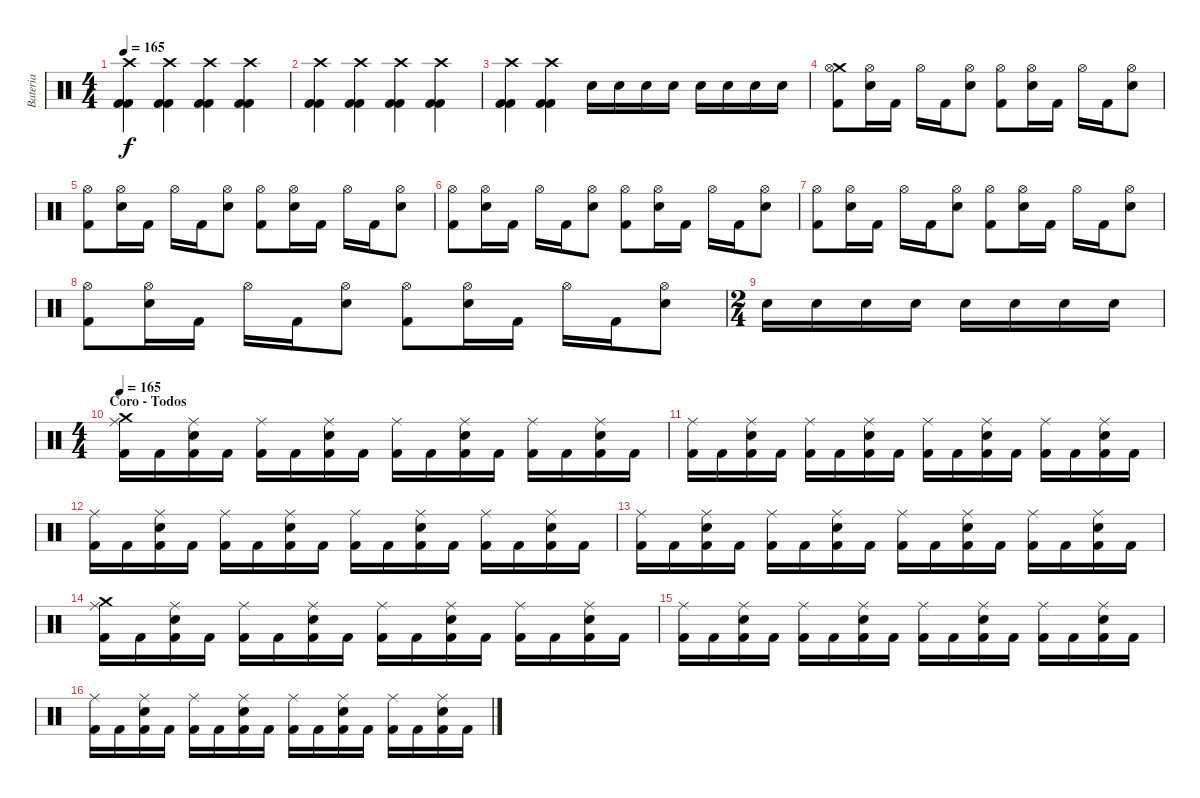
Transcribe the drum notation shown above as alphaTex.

\track ("Bateria" "Bateria") {instrument percussion}
\staff {score}
\articulation defaults
\ts (4 4)
\tempo 165
\clef neutral
\ks c
("Crash high (hit)" "Kick (hit) 2" "Kick (hit) 2").4{dy f} ("Crash high (hit)" "Kick (hit) 2" "Kick (hit) 2").4 ("Crash high (hit)" "Kick (hit) 2" "Kick (hit) 2").4 ("Crash high (hit)" "Kick (hit) 2" "Kick (hit) 2").4 |
("Crash high (hit)" "Kick (hit) 2" "Kick (hit) 2").4 ("Crash high (hit)" "Kick (hit) 2" "Kick (hit) 2").4 ("Crash high (hit)" "Kick (hit) 2" "Kick (hit) 2").4 ("Crash high (hit)" "Kick (hit) 2" "Kick (hit) 2").4 |
("Crash high (hit)" "Kick (hit) 2" "Kick (hit) 2").4 ("Crash high (hit)" "Kick (hit) 2" "Kick (hit) 2").4 "Snare (hit) 2".16 "Snare (hit) 2".16 "Snare (hit) 2".16 "Snare (hit) 2".16 "Snare (hit) 2".16 "Snare (hit) 2".16 "Snare (hit) 2".16 "Snare (hit) 2".16 |
("Crash medium (hit)" "Hi-Hat (open)" "Kick (hit) 2").8 ("Snare (hit) 2" "Hi-Hat (open)").16 "Kick (hit) 2".16 "Hi-Hat (open)".16 "Kick (hit) 2".16 ("Snare (hit) 2" "Hi-Hat (open)").8 ("Hi-Hat (open)" "Kick (hit) 2").8 ("Snare (hit) 2" "Hi-Hat (open)").16 "Kick (hit) 2".16 "Hi-Hat (open)".16 "Kick (hit) 2".16 ("Snare (hit) 2" "Hi-Hat (open)").8 |
("Hi-Hat (open)" "Kick (hit) 2").8 ("Snare (hit) 2" "Hi-Hat (open)").16 "Kick (hit) 2".16 "Hi-Hat (open)".16 "Kick (hit) 2".16 ("Snare (hit) 2" "Hi-Hat (open)").8 ("Hi-Hat (open)" "Kick (hit) 2").8 ("Snare (hit) 2" "Hi-Hat (open)").16 "Kick (hit) 2".16 "Hi-Hat (open)".16 "Kick (hit) 2".16 ("Snare (hit) 2" "Hi-Hat (open)").8 |
("Hi-Hat (open)" "Kick (hit) 2").8 ("Snare (hit) 2" "Hi-Hat (open)").16 "Kick (hit) 2".16 "Hi-Hat (open)".16 "Kick (hit) 2".16 ("Snare (hit) 2" "Hi-Hat (open)").8 ("Hi-Hat (open)" "Kick (hit) 2").8 ("Snare (hit) 2" "Hi-Hat (open)").16 "Kick (hit) 2".16 "Hi-Hat (open)".16 "Kick (hit) 2".16 ("Snare (hit) 2" "Hi-Hat (open)").8 |
("Hi-Hat (open)" "Kick (hit) 2").8 ("Snare (hit) 2" "Hi-Hat (open)").16 "Kick (hit) 2".16 "Hi-Hat (open)".16 "Kick (hit) 2".16 ("Snare (hit) 2" "Hi-Hat (open)").8 ("Hi-Hat (open)" "Kick (hit) 2").8 ("Snare (hit) 2" "Hi-Hat (open)").16 "Kick (hit) 2".16 "Hi-Hat (open)".16 "Kick (hit) 2".16 ("Snare (hit) 2" "Hi-Hat (open)").8 |
("Hi-Hat (open)" "Kick (hit) 2").8 ("Snare (hit) 2" "Hi-Hat (open)").16 "Kick (hit) 2".16 "Hi-Hat (open)".16 "Kick (hit) 2".16 ("Snare (hit) 2" "Hi-Hat (open)").8 ("Hi-Hat (open)" "Kick (hit) 2").8 ("Snare (hit) 2" "Hi-Hat (open)").16 "Kick (hit) 2".16 "Hi-Hat (open)".16 "Kick (hit) 2".16 ("Snare (hit) 2" "Hi-Hat (open)").8 |
\ts (2 4)
"Snare (hit) 2".16 "Snare (hit) 2".16 "Snare (hit) 2".16 "Snare (hit) 2".16 "Snare (hit) 2".16 "Snare (hit) 2".16 "Snare (hit) 2".16 "Snare (hit) 2".16 |
\ts (4 4)
\section ("" "Coro - Todos")
\tempo 165
("Crash medium (hit)" "Ride (middle)" "Kick (hit) 2").16 "Kick (hit) 2".16 ("Snare (hit) 2" "Ride (middle)" "Kick (hit) 2").16 "Kick (hit) 2".16 ("Ride (middle)" "Kick (hit) 2").16 "Kick (hit) 2".16 ("Snare (hit) 2" "Ride (middle)" "Kick (hit) 2").16 "Kick (hit) 2".16 ("Ride (middle)" "Kick (hit) 2").16 "Kick (hit) 2".16 ("Snare (hit) 2" "Ride (middle)" "Kick (hit) 2").16 "Kick (hit) 2".16 ("Ride (middle)" "Kick (hit) 2").16 "Kick (hit) 2".16 ("Snare (hit) 2" "Ride (middle)" "Kick (hit) 2").16 "Kick (hit) 2".16 |
("Ride (middle)" "Kick (hit) 2").16 "Kick (hit) 2".16 ("Snare (hit) 2" "Ride (middle)" "Kick (hit) 2").16 "Kick (hit) 2".16 ("Ride (middle)" "Kick (hit) 2").16 "Kick (hit) 2".16 ("Snare (hit) 2" "Ride (middle)" "Kick (hit) 2").16 "Kick (hit) 2".16 ("Ride (middle)" "Kick (hit) 2").16 "Kick (hit) 2".16 ("Snare (hit) 2" "Ride (middle)" "Kick (hit) 2").16 "Kick (hit) 2".16 ("Ride (middle)" "Kick (hit) 2").16 "Kick (hit) 2".16 ("Snare (hit) 2" "Ride (middle)" "Kick (hit) 2").16 "Kick (hit) 2".16 |
("Ride (middle)" "Kick (hit) 2").16 "Kick (hit) 2".16 ("Snare (hit) 2" "Ride (middle)" "Kick (hit) 2").16 "Kick (hit) 2".16 ("Ride (middle)" "Kick (hit) 2").16 "Kick (hit) 2".16 ("Snare (hit) 2" "Ride (middle)" "Kick (hit) 2").16 "Kick (hit) 2".16 ("Ride (middle)" "Kick (hit) 2").16 "Kick (hit) 2".16 ("Snare (hit) 2" "Ride (middle)" "Kick (hit) 2").16 "Kick (hit) 2".16 ("Ride (middle)" "Kick (hit) 2").16 "Kick (hit) 2".16 ("Snare (hit) 2" "Ride (middle)" "Kick (hit) 2").16 "Kick (hit) 2".16 |
("Ride (middle)" "Kick (hit) 2").16 "Kick (hit) 2".16 ("Snare (hit) 2" "Ride (middle)" "Kick (hit) 2").16 "Kick (hit) 2".16 ("Ride (middle)" "Kick (hit) 2").16 "Kick (hit) 2".16 ("Snare (hit) 2" "Ride (middle)" "Kick (hit) 2").16 "Kick (hit) 2".16 ("Ride (middle)" "Kick (hit) 2").16 "Kick (hit) 2".16 ("Snare (hit) 2" "Ride (middle)" "Kick (hit) 2").16 "Kick (hit) 2".16 ("Ride (middle)" "Kick (hit) 2").16 "Kick (hit) 2".16 ("Snare (hit) 2" "Ride (middle)" "Kick (hit) 2").16 "Kick (hit) 2".16 |
("Crash medium (hit)" "Ride (middle)" "Kick (hit) 2").16 "Kick (hit) 2".16 ("Snare (hit) 2" "Ride (middle)" "Kick (hit) 2").16 "Kick (hit) 2".16 ("Ride (middle)" "Kick (hit) 2").16 "Kick (hit) 2".16 ("Snare (hit) 2" "Ride (middle)" "Kick (hit) 2").16 "Kick (hit) 2".16 ("Ride (middle)" "Kick (hit) 2").16 "Kick (hit) 2".16 ("Snare (hit) 2" "Ride (middle)" "Kick (hit) 2").16 "Kick (hit) 2".16 ("Ride (middle)" "Kick (hit) 2").16 "Kick (hit) 2".16 ("Snare (hit) 2" "Ride (middle)" "Kick (hit) 2").16 "Kick (hit) 2".16 |
("Ride (middle)" "Kick (hit) 2").16 "Kick (hit) 2".16 ("Snare (hit) 2" "Ride (middle)" "Kick (hit) 2").16 "Kick (hit) 2".16 ("Ride (middle)" "Kick (hit) 2").16 "Kick (hit) 2".16 ("Snare (hit) 2" "Ride (middle)" "Kick (hit) 2").16 "Kick (hit) 2".16 ("Ride (middle)" "Kick (hit) 2").16 "Kick (hit) 2".16 ("Snare (hit) 2" "Ride (middle)" "Kick (hit) 2").16 "Kick (hit) 2".16 ("Ride (middle)" "Kick (hit) 2").16 "Kick (hit) 2".16 ("Snare (hit) 2" "Ride (middle)" "Kick (hit) 2").16 "Kick (hit) 2".16 |
("Ride (middle)" "Kick (hit) 2").16 "Kick (hit) 2".16 ("Snare (hit) 2" "Ride (middle)" "Kick (hit) 2").16 "Kick (hit) 2".16 ("Ride (middle)" "Kick (hit) 2").16 "Kick (hit) 2".16 ("Snare (hit) 2" "Ride (middle)" "Kick (hit) 2").16 "Kick (hit) 2".16 ("Ride (middle)" "Kick (hit) 2").16 "Kick (hit) 2".16 ("Snare (hit) 2" "Ride (middle)" "Kick (hit) 2").16 "Kick (hit) 2".16 ("Ride (middle)" "Kick (hit) 2").16 "Kick (hit) 2".16 ("Snare (hit) 2" "Ride (middle)" "Kick (hit) 2").16 "Kick (hit) 2".16
